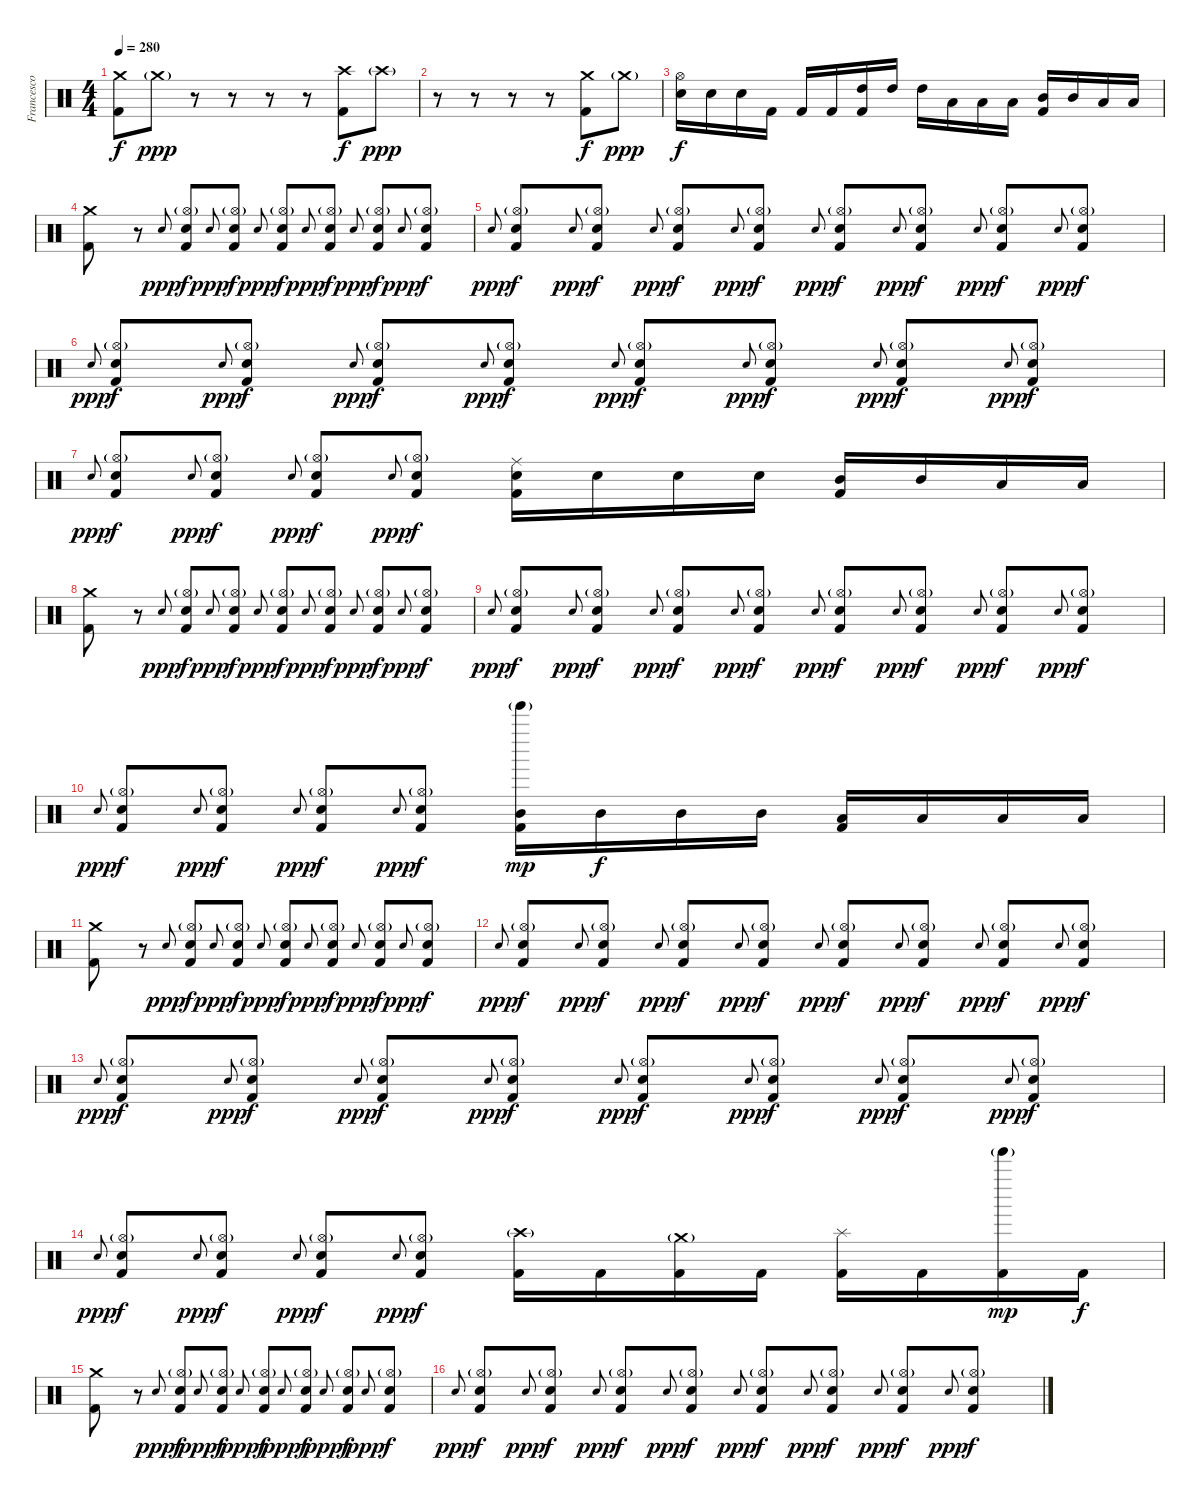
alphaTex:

\track ("Francesco Ferrini" "Francesco ") {instrument percussion}
\staff {score}
\articulation defaults
\ts (4 4)
\tempo 280
\clef neutral
\ks c
("Crash medium (hit)" "Kick (hit) 2").8{dy f} "Crash medium (hit)"{g}.8{dy ppp} r.8 r.8 r.8 r.8 ("Crash high (hit)" "Kick (hit) 2").8{dy f} "Crash high (hit)"{g}.8{dy ppp} |
r.8 r.8 r.8 r.8 ("Crash medium (hit)" "Kick (hit) 2").8{dy f} "Crash medium (hit)"{g}.8{dy ppp} |
("Hi-Hat (open)" "Electric Snare (hit)").16{dy f} "Electric Snare (hit)".16 "Electric Snare (hit)".16 "Kick (hit) 2".16 "Kick (hit) 2".16 "Kick (hit) 2".16 ("High Tom (hit)" "Kick (hit) 2").16 "High Tom (hit)".16 "High Tom (hit)".16 "Low Tom (hit)".16 "Low Tom (hit)".16 "Low Tom (hit)".16 ("Mid Tom (hit)" "Kick (hit) 2").16 "Mid Tom (hit)".16 "Low Tom (hit)".16 "Low Tom (hit)".16 |
("Crash medium (hit)" "Kick (hit) 2").8 r.8 "Electric Snare (hit)"{h}.8{gr onbeat dy ppp} ("Hi-Hat (open)"{g} "Electric Snare (hit)" "Kick (hit) 2").8{dy f} "Electric Snare (hit)"{h}.8{gr onbeat dy ppp} ("Hi-Hat (open)"{g} "Electric Snare (hit)" "Kick (hit) 2").8{dy f} "Electric Snare (hit)"{h}.8{gr onbeat dy ppp} ("Hi-Hat (open)"{g} "Electric Snare (hit)" "Kick (hit) 2").8{dy f} "Electric Snare (hit)"{h}.8{gr onbeat dy ppp} ("Hi-Hat (open)"{g} "Electric Snare (hit)" "Kick (hit) 2").8{dy f} "Electric Snare (hit)"{h}.8{gr onbeat dy ppp} ("Hi-Hat (open)"{g} "Electric Snare (hit)" "Kick (hit) 2").8{dy f} "Electric Snare (hit)"{h}.8{gr onbeat dy ppp} ("Hi-Hat (open)"{g} "Electric Snare (hit)" "Kick (hit) 2").8{dy f} |
"Electric Snare (hit)"{h}.8{gr onbeat dy ppp} ("Hi-Hat (open)"{g} "Electric Snare (hit)" "Kick (hit) 2").8{dy f} "Electric Snare (hit)"{h}.8{gr onbeat dy ppp} ("Hi-Hat (open)"{g} "Electric Snare (hit)" "Kick (hit) 2").8{dy f} "Electric Snare (hit)"{h}.8{gr onbeat dy ppp} ("Hi-Hat (open)"{g} "Electric Snare (hit)" "Kick (hit) 2").8{dy f} "Electric Snare (hit)"{h}.8{gr onbeat dy ppp} ("Hi-Hat (open)"{g} "Electric Snare (hit)" "Kick (hit) 2").8{dy f} "Electric Snare (hit)"{h}.8{gr onbeat dy ppp} ("Hi-Hat (open)"{g} "Electric Snare (hit)" "Kick (hit) 2").8{dy f} "Electric Snare (hit)"{h}.8{gr onbeat dy ppp} ("Hi-Hat (open)"{g} "Electric Snare (hit)" "Kick (hit) 2").8{dy f} "Electric Snare (hit)"{h}.8{gr onbeat dy ppp} ("Hi-Hat (open)"{g} "Electric Snare (hit)" "Kick (hit) 2").8{dy f} "Electric Snare (hit)"{h}.8{gr onbeat dy ppp} ("Hi-Hat (open)"{g} "Electric Snare (hit)" "Kick (hit) 2").8{dy f} |
"Electric Snare (hit)"{h}.8{gr onbeat dy ppp} ("Hi-Hat (open)"{g} "Electric Snare (hit)" "Kick (hit) 2").8{dy f} "Electric Snare (hit)"{h}.8{gr onbeat dy ppp} ("Hi-Hat (open)"{g} "Electric Snare (hit)" "Kick (hit) 2").8{dy f} "Electric Snare (hit)"{h}.8{gr onbeat dy ppp} ("Hi-Hat (open)"{g} "Electric Snare (hit)" "Kick (hit) 2").8{dy f} "Electric Snare (hit)"{h}.8{gr onbeat dy ppp} ("Hi-Hat (open)"{g} "Electric Snare (hit)" "Kick (hit) 2").8{dy f} "Electric Snare (hit)"{h}.8{gr onbeat dy ppp} ("Hi-Hat (open)"{g} "Electric Snare (hit)" "Kick (hit) 2").8{dy f} "Electric Snare (hit)"{h}.8{gr onbeat dy ppp} ("Hi-Hat (open)"{g} "Electric Snare (hit)" "Kick (hit) 2").8{dy f} "Electric Snare (hit)"{h}.8{gr onbeat dy ppp} ("Hi-Hat (open)"{g} "Electric Snare (hit)" "Kick (hit) 2").8{dy f} "Electric Snare (hit)"{h}.8{gr onbeat dy ppp} ("Hi-Hat (open)"{g} "Electric Snare (hit)" "Kick (hit) 2").8{dy f} |
"Electric Snare (hit)"{h}.8{gr onbeat dy ppp} ("Hi-Hat (open)"{g} "Electric Snare (hit)" "Kick (hit) 2").8{dy f} "Electric Snare (hit)"{h}.8{gr onbeat dy ppp} ("Hi-Hat (open)"{g} "Electric Snare (hit)" "Kick (hit) 2").8{dy f} "Electric Snare (hit)"{h}.8{gr onbeat dy ppp} ("Hi-Hat (open)"{g} "Electric Snare (hit)" "Kick (hit) 2").8{dy f} "Electric Snare (hit)"{h}.8{gr onbeat dy ppp} ("Hi-Hat (open)"{g} "Electric Snare (hit)" "Kick (hit) 2").8{dy f} ("Ride (middle)" "Electric Snare (hit)" "Kick (hit) 2").16 "Electric Snare (hit)".16 "Electric Snare (hit)".16 "Electric Snare (hit)".16 ("Mid Tom (hit)" "Kick (hit) 2").16 "Mid Tom (hit)".16 "Low Tom (hit)".16 "Low Tom (hit)".16 |
("Crash medium (hit)" "Kick (hit) 2").8 r.8 "Electric Snare (hit)"{h}.8{gr onbeat dy ppp} ("Hi-Hat (open)"{g} "Electric Snare (hit)" "Kick (hit) 2").8{dy f} "Electric Snare (hit)"{h}.8{gr onbeat dy ppp} ("Hi-Hat (open)"{g} "Electric Snare (hit)" "Kick (hit) 2").8{dy f} "Electric Snare (hit)"{h}.8{gr onbeat dy ppp} ("Hi-Hat (open)"{g} "Electric Snare (hit)" "Kick (hit) 2").8{dy f} "Electric Snare (hit)"{h}.8{gr onbeat dy ppp} ("Hi-Hat (open)"{g} "Electric Snare (hit)" "Kick (hit) 2").8{dy f} "Electric Snare (hit)"{h}.8{gr onbeat dy ppp} ("Hi-Hat (open)"{g} "Electric Snare (hit)" "Kick (hit) 2").8{dy f} "Electric Snare (hit)"{h}.8{gr onbeat dy ppp} ("Hi-Hat (open)"{g} "Electric Snare (hit)" "Kick (hit) 2").8{dy f} |
"Electric Snare (hit)"{h}.8{gr onbeat dy ppp} ("Hi-Hat (open)"{g} "Electric Snare (hit)" "Kick (hit) 2").8{dy f} "Electric Snare (hit)"{h}.8{gr onbeat dy ppp} ("Hi-Hat (open)"{g} "Electric Snare (hit)" "Kick (hit) 2").8{dy f} "Electric Snare (hit)"{h}.8{gr onbeat dy ppp} ("Hi-Hat (open)"{g} "Electric Snare (hit)" "Kick (hit) 2").8{dy f} "Electric Snare (hit)"{h}.8{gr onbeat dy ppp} ("Hi-Hat (open)"{g} "Electric Snare (hit)" "Kick (hit) 2").8{dy f} "Electric Snare (hit)"{h}.8{gr onbeat dy ppp} ("Hi-Hat (open)"{g} "Electric Snare (hit)" "Kick (hit) 2").8{dy f} "Electric Snare (hit)"{h}.8{gr onbeat dy ppp} ("Hi-Hat (open)"{g} "Electric Snare (hit)" "Kick (hit) 2").8{dy f} "Electric Snare (hit)"{h}.8{gr onbeat dy ppp} ("Hi-Hat (open)"{g} "Electric Snare (hit)" "Kick (hit) 2").8{dy f} "Electric Snare (hit)"{h}.8{gr onbeat dy ppp} ("Hi-Hat (open)"{g} "Electric Snare (hit)" "Kick (hit) 2").8{dy f} |
"Electric Snare (hit)"{h}.8{gr onbeat dy ppp} ("Hi-Hat (open)"{g} "Electric Snare (hit)" "Kick (hit) 2").8{dy f} "Electric Snare (hit)"{h}.8{gr onbeat dy ppp} ("Hi-Hat (open)"{g} "Electric Snare (hit)" "Kick (hit) 2").8{dy f} "Electric Snare (hit)"{h}.8{gr onbeat dy ppp} ("Hi-Hat (open)"{g} "Electric Snare (hit)" "Kick (hit) 2").8{dy f} "Electric Snare (hit)"{h}.8{gr onbeat dy ppp} ("Hi-Hat (open)"{g} "Electric Snare (hit)" "Kick (hit) 2").8{dy f} ("Tinkle Bell (hit)"{g} "Mid Tom (hit)" "Kick (hit) 2").16{dy mp} "Mid Tom (hit)".16{dy f} "Mid Tom (hit)".16 "Mid Tom (hit)".16 ("Low Tom (hit)" "Kick (hit) 2").16 "Low Tom (hit)".16 "Low Tom (hit)".16 "Low Tom (hit)".16 |
("Crash medium (hit)" "Kick (hit) 2").8 r.8 "Electric Snare (hit)"{h}.8{gr onbeat dy ppp} ("Hi-Hat (open)"{g} "Electric Snare (hit)" "Kick (hit) 2").8{dy f} "Electric Snare (hit)"{h}.8{gr onbeat dy ppp} ("Hi-Hat (open)"{g} "Electric Snare (hit)" "Kick (hit) 2").8{dy f} "Electric Snare (hit)"{h}.8{gr onbeat dy ppp} ("Hi-Hat (open)"{g} "Electric Snare (hit)" "Kick (hit) 2").8{dy f} "Electric Snare (hit)"{h}.8{gr onbeat dy ppp} ("Hi-Hat (open)"{g} "Electric Snare (hit)" "Kick (hit) 2").8{dy f} "Electric Snare (hit)"{h}.8{gr onbeat dy ppp} ("Hi-Hat (open)"{g} "Electric Snare (hit)" "Kick (hit) 2").8{dy f} "Electric Snare (hit)"{h}.8{gr onbeat dy ppp} ("Hi-Hat (open)"{g} "Electric Snare (hit)" "Kick (hit) 2").8{dy f} |
"Electric Snare (hit)"{h}.8{gr onbeat dy ppp} ("Hi-Hat (open)"{g} "Electric Snare (hit)" "Kick (hit) 2").8{dy f} "Electric Snare (hit)"{h}.8{gr onbeat dy ppp} ("Hi-Hat (open)"{g} "Electric Snare (hit)" "Kick (hit) 2").8{dy f} "Electric Snare (hit)"{h}.8{gr onbeat dy ppp} ("Hi-Hat (open)"{g} "Electric Snare (hit)" "Kick (hit) 2").8{dy f} "Electric Snare (hit)"{h}.8{gr onbeat dy ppp} ("Hi-Hat (open)"{g} "Electric Snare (hit)" "Kick (hit) 2").8{dy f} "Electric Snare (hit)"{h}.8{gr onbeat dy ppp} ("Hi-Hat (open)"{g} "Electric Snare (hit)" "Kick (hit) 2").8{dy f} "Electric Snare (hit)"{h}.8{gr onbeat dy ppp} ("Hi-Hat (open)"{g} "Electric Snare (hit)" "Kick (hit) 2").8{dy f} "Electric Snare (hit)"{h}.8{gr onbeat dy ppp} ("Hi-Hat (open)"{g} "Electric Snare (hit)" "Kick (hit) 2").8{dy f} "Electric Snare (hit)"{h}.8{gr onbeat dy ppp} ("Hi-Hat (open)"{g} "Electric Snare (hit)" "Kick (hit) 2").8{dy f} |
"Electric Snare (hit)"{h}.8{gr onbeat dy ppp} ("Hi-Hat (open)"{g} "Electric Snare (hit)" "Kick (hit) 2").8{dy f} "Electric Snare (hit)"{h}.8{gr onbeat dy ppp} ("Hi-Hat (open)"{g} "Electric Snare (hit)" "Kick (hit) 2").8{dy f} "Electric Snare (hit)"{h}.8{gr onbeat dy ppp} ("Hi-Hat (open)"{g} "Electric Snare (hit)" "Kick (hit) 2").8{dy f} "Electric Snare (hit)"{h}.8{gr onbeat dy ppp} ("Hi-Hat (open)"{g} "Electric Snare (hit)" "Kick (hit) 2").8{dy f} "Electric Snare (hit)"{h}.8{gr onbeat dy ppp} ("Hi-Hat (open)"{g} "Electric Snare (hit)" "Kick (hit) 2").8{dy f} "Electric Snare (hit)"{h}.8{gr onbeat dy ppp} ("Hi-Hat (open)"{g} "Electric Snare (hit)" "Kick (hit) 2").8{dy f} "Electric Snare (hit)"{h}.8{gr onbeat dy ppp} ("Hi-Hat (open)"{g} "Electric Snare (hit)" "Kick (hit) 2").8{dy f} "Electric Snare (hit)"{h}.8{gr onbeat dy ppp} ("Hi-Hat (open)"{g} "Electric Snare (hit)" "Kick (hit) 2").8{dy f} |
"Electric Snare (hit)"{h}.8{gr onbeat dy ppp} ("Hi-Hat (open)"{g} "Electric Snare (hit)" "Kick (hit) 2").8{dy f} "Electric Snare (hit)"{h}.8{gr onbeat dy ppp} ("Hi-Hat (open)"{g} "Electric Snare (hit)" "Kick (hit) 2").8{dy f} "Electric Snare (hit)"{h}.8{gr onbeat dy ppp} ("Hi-Hat (open)"{g} "Electric Snare (hit)" "Kick (hit) 2").8{dy f} "Electric Snare (hit)"{h}.8{gr onbeat dy ppp} ("Hi-Hat (open)"{g} "Electric Snare (hit)" "Kick (hit) 2").8{dy f} ("Crash high (hit)"{g} "Kick (hit) 2").16 "Kick (hit) 2".16 ("Crash medium (hit)"{g} "Kick (hit) 2").16 "Kick (hit) 2".16 ("Splash (hit)" "Kick (hit) 2").16 "Kick (hit) 2".16 ("Tinkle Bell (hit)"{g} "Kick (hit) 2").16{dy mp} "Kick (hit) 2".16{dy f} |
("Crash medium (hit)" "Kick (hit) 2").8 r.8 "Electric Snare (hit)"{h}.8{gr onbeat dy ppp} ("Hi-Hat (open)"{g} "Electric Snare (hit)" "Kick (hit) 2").8{dy f} "Electric Snare (hit)"{h}.8{gr onbeat dy ppp} ("Hi-Hat (open)"{g} "Electric Snare (hit)" "Kick (hit) 2").8{dy f} "Electric Snare (hit)"{h}.8{gr onbeat dy ppp} ("Hi-Hat (open)"{g} "Electric Snare (hit)" "Kick (hit) 2").8{dy f} "Electric Snare (hit)"{h}.8{gr onbeat dy ppp} ("Hi-Hat (open)"{g} "Electric Snare (hit)" "Kick (hit) 2").8{dy f} "Electric Snare (hit)"{h}.8{gr onbeat dy ppp} ("Hi-Hat (open)"{g} "Electric Snare (hit)" "Kick (hit) 2").8{dy f} "Electric Snare (hit)"{h}.8{gr onbeat dy ppp} ("Hi-Hat (open)"{g} "Electric Snare (hit)" "Kick (hit) 2").8{dy f} |
"Electric Snare (hit)"{h}.8{gr onbeat dy ppp} ("Hi-Hat (open)"{g} "Electric Snare (hit)" "Kick (hit) 2").8{dy f} "Electric Snare (hit)"{h}.8{gr onbeat dy ppp} ("Hi-Hat (open)"{g} "Electric Snare (hit)" "Kick (hit) 2").8{dy f} "Electric Snare (hit)"{h}.8{gr onbeat dy ppp} ("Hi-Hat (open)"{g} "Electric Snare (hit)" "Kick (hit) 2").8{dy f} "Electric Snare (hit)"{h}.8{gr onbeat dy ppp} ("Hi-Hat (open)"{g} "Electric Snare (hit)" "Kick (hit) 2").8{dy f} "Electric Snare (hit)"{h}.8{gr onbeat dy ppp} ("Hi-Hat (open)"{g} "Electric Snare (hit)" "Kick (hit) 2").8{dy f} "Electric Snare (hit)"{h}.8{gr onbeat dy ppp} ("Hi-Hat (open)"{g} "Electric Snare (hit)" "Kick (hit) 2").8{dy f} "Electric Snare (hit)"{h}.8{gr onbeat dy ppp} ("Hi-Hat (open)"{g} "Electric Snare (hit)" "Kick (hit) 2").8{dy f} "Electric Snare (hit)"{h}.8{gr onbeat dy ppp} ("Hi-Hat (open)"{g} "Electric Snare (hit)" "Kick (hit) 2").8{dy f}
